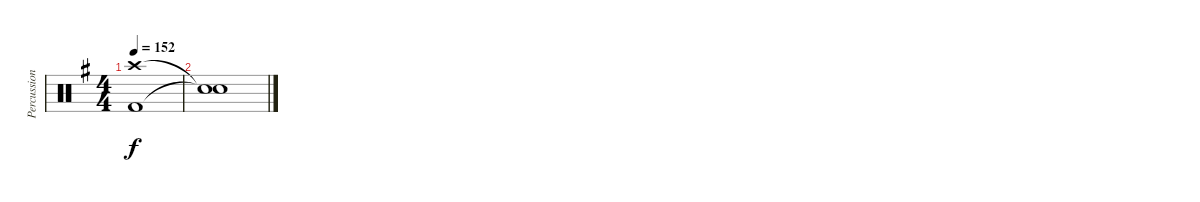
\track ("Percussion" "Percussion") {instrument percussion}
\staff {score}
\articulation defaults
\ts (4 4)
\tempo 152
\clef neutral
\ks eminor
("Crash high (hit)" "Kick (hit) 2").1{dy f} |
("Snare (hit)"{t} "Snare (hit)"{t}).1
